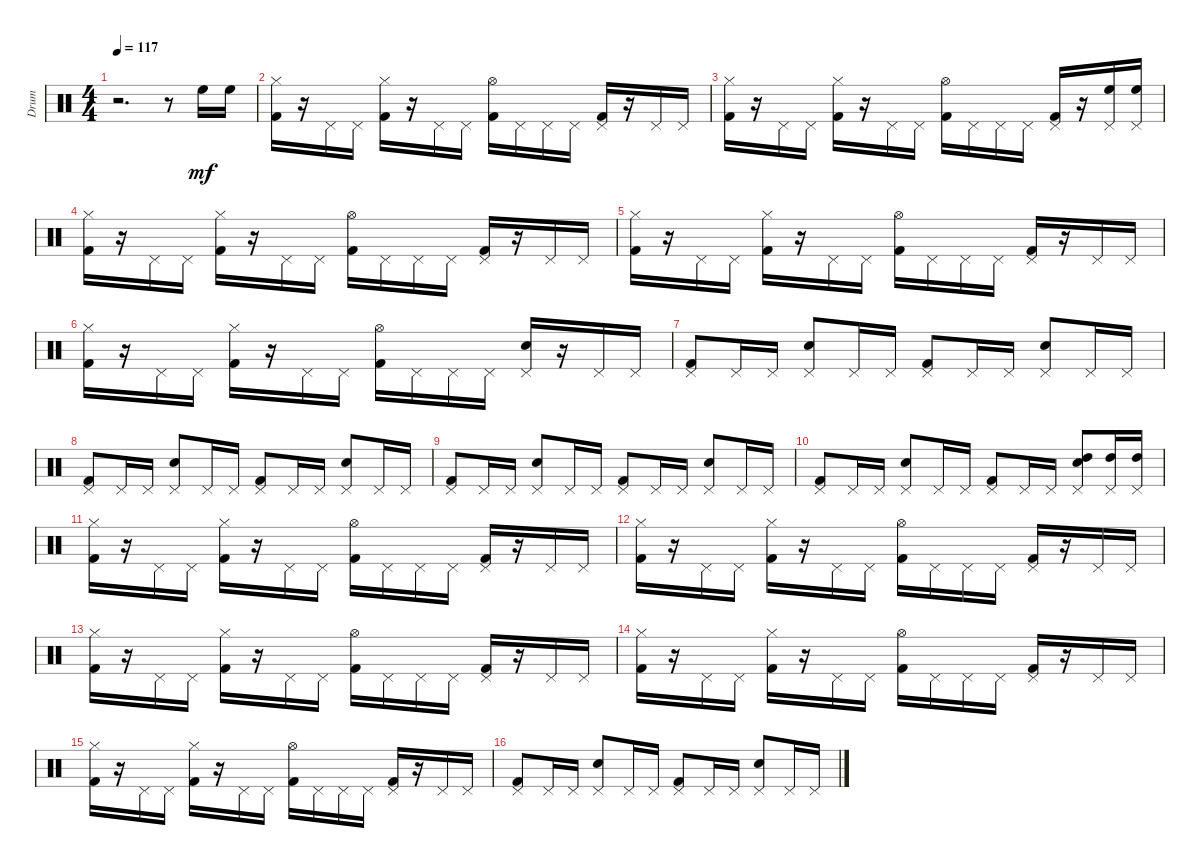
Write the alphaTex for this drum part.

\track ("Drum" "Drum") {instrument percussion}
\staff {score}
\articulation defaults
\ts (4 4)
\tempo 117
\clef neutral
\ks c
r.2{d dy mf} r.8 "High Floor Tom (hit)".16 "High Floor Tom (hit)".16 |
("Hi-Hat (closed)" "Kick (hit) 2").16 r.16 "Pedal Hi-Hat (hit)".16 "Pedal Hi-Hat (hit)".16 ("Hi-Hat (closed)" "Kick (hit) 2").16 r.16 "Pedal Hi-Hat (hit)".16 "Pedal Hi-Hat (hit)".16 ("Hi-Hat (open)" "Kick (hit) 2").16 "Pedal Hi-Hat (hit)".16 "Pedal Hi-Hat (hit)".16 "Pedal Hi-Hat (hit)".16 ("Kick (hit) 2" "Pedal Hi-Hat (hit)").16 r.16 "Pedal Hi-Hat (hit)".16 "Pedal Hi-Hat (hit)".16 |
("Kick (hit) 2" "Hi-Hat (closed)").16 r.16 "Pedal Hi-Hat (hit)".16 "Pedal Hi-Hat (hit)".16 ("Kick (hit) 2" "Hi-Hat (closed)").16 r.16 "Pedal Hi-Hat (hit)".16 "Pedal Hi-Hat (hit)".16 ("Hi-Hat (open)" "Kick (hit) 2").16 "Pedal Hi-Hat (hit)".16 "Pedal Hi-Hat (hit)".16 "Pedal Hi-Hat (hit)".16 ("Kick (hit) 2" "Pedal Hi-Hat (hit)").16 r.16 ("High Floor Tom (hit)" "Pedal Hi-Hat (hit)").16 ("Pedal Hi-Hat (hit)" "High Floor Tom (hit)").16 |
("Hi-Hat (closed)" "Kick (hit) 2").16 r.16 "Pedal Hi-Hat (hit)".16 "Pedal Hi-Hat (hit)".16 ("Kick (hit) 2" "Hi-Hat (closed)").16 r.16 "Pedal Hi-Hat (hit)".16 "Pedal Hi-Hat (hit)".16 ("Kick (hit) 2" "Hi-Hat (open)").16 "Pedal Hi-Hat (hit)".16 "Pedal Hi-Hat (hit)".16 "Pedal Hi-Hat (hit)".16 ("Pedal Hi-Hat (hit)" "Kick (hit) 2").16 r.16 "Pedal Hi-Hat (hit)".16 "Pedal Hi-Hat (hit)".16 |
("Hi-Hat (closed)" "Kick (hit) 2").16 r.16 "Pedal Hi-Hat (hit)".16 "Pedal Hi-Hat (hit)".16 ("Kick (hit) 2" "Hi-Hat (closed)").16 r.16 "Pedal Hi-Hat (hit)".16 "Pedal Hi-Hat (hit)".16 ("Hi-Hat (open)" "Kick (hit) 2").16 "Pedal Hi-Hat (hit)".16 "Pedal Hi-Hat (hit)".16 "Pedal Hi-Hat (hit)".16 ("Pedal Hi-Hat (hit)" "Kick (hit) 2").16 r.16 "Pedal Hi-Hat (hit)".16 "Pedal Hi-Hat (hit)".16 |
("Hi-Hat (closed)" "Kick (hit) 2").16 r.16 "Pedal Hi-Hat (hit)".16 "Pedal Hi-Hat (hit)".16 ("Kick (hit) 2" "Hi-Hat (closed)").16 r.16 "Pedal Hi-Hat (hit)".16 "Pedal Hi-Hat (hit)".16 ("Kick (hit) 2" "Hi-Hat (open)").16 "Pedal Hi-Hat (hit)".16 "Pedal Hi-Hat (hit)".16 "Pedal Hi-Hat (hit)".16 ("Snare (hit) 2" "Pedal Hi-Hat (hit)").16 r.16 "Pedal Hi-Hat (hit)".16 "Pedal Hi-Hat (hit)".16 |
("Pedal Hi-Hat (hit)" "Kick (hit) 2").8 "Pedal Hi-Hat (hit)".16 "Pedal Hi-Hat (hit)".16 ("Snare (hit) 2" "Pedal Hi-Hat (hit)").8 "Pedal Hi-Hat (hit)".16 "Pedal Hi-Hat (hit)".16 ("Pedal Hi-Hat (hit)" "Kick (hit) 2").8 "Pedal Hi-Hat (hit)".16 "Pedal Hi-Hat (hit)".16 ("Pedal Hi-Hat (hit)" "Snare (hit) 2").8 "Pedal Hi-Hat (hit)".16 "Pedal Hi-Hat (hit)".16 |
("Kick (hit) 2" "Pedal Hi-Hat (hit)").8 "Pedal Hi-Hat (hit)".16 "Pedal Hi-Hat (hit)".16 ("Snare (hit) 2" "Pedal Hi-Hat (hit)").8 "Pedal Hi-Hat (hit)".16 "Pedal Hi-Hat (hit)".16 ("Kick (hit) 2" "Pedal Hi-Hat (hit)").8 "Pedal Hi-Hat (hit)".16 "Pedal Hi-Hat (hit)".16 ("Snare (hit) 2" "Pedal Hi-Hat (hit)").8 "Pedal Hi-Hat (hit)".16 "Pedal Hi-Hat (hit)".16 |
("Pedal Hi-Hat (hit)" "Kick (hit) 2").8 "Pedal Hi-Hat (hit)".16 "Pedal Hi-Hat (hit)".16 ("Snare (hit) 2" "Pedal Hi-Hat (hit)").8 "Pedal Hi-Hat (hit)".16 "Pedal Hi-Hat (hit)".16 ("Kick (hit) 2" "Pedal Hi-Hat (hit)").8 "Pedal Hi-Hat (hit)".16 "Pedal Hi-Hat (hit)".16 ("Pedal Hi-Hat (hit)" "Snare (hit) 2").8 "Pedal Hi-Hat (hit)".16 "Pedal Hi-Hat (hit)".16 |
("Pedal Hi-Hat (hit)" "Kick (hit) 2").8 "Pedal Hi-Hat (hit)".16 "Pedal Hi-Hat (hit)".16 ("Pedal Hi-Hat (hit)" "Snare (hit) 2").8 "Pedal Hi-Hat (hit)".16 "Pedal Hi-Hat (hit)".16 ("Kick (hit) 2" "Pedal Hi-Hat (hit)").8 "Pedal Hi-Hat (hit)".16 "Pedal Hi-Hat (hit)".16 ("High Tom (hit)" "Snare (hit) 2" "Pedal Hi-Hat (hit)").8 ("High Tom (hit)" "Pedal Hi-Hat (hit)").16 ("High Tom (hit)" "Pedal Hi-Hat (hit)").16 |
("Hi-Hat (closed)" "Kick (hit) 2").16 r.16 "Pedal Hi-Hat (hit)".16 "Pedal Hi-Hat (hit)".16 ("Hi-Hat (closed)" "Kick (hit) 2").16 r.16 "Pedal Hi-Hat (hit)".16 "Pedal Hi-Hat (hit)".16 ("Hi-Hat (open)" "Kick (hit) 2").16 "Pedal Hi-Hat (hit)".16 "Pedal Hi-Hat (hit)".16 "Pedal Hi-Hat (hit)".16 ("Kick (hit) 2" "Pedal Hi-Hat (hit)").16 r.16 "Pedal Hi-Hat (hit)".16 "Pedal Hi-Hat (hit)".16 |
("Hi-Hat (closed)" "Kick (hit) 2").16 r.16 "Pedal Hi-Hat (hit)".16 "Pedal Hi-Hat (hit)".16 ("Kick (hit) 2" "Hi-Hat (closed)").16 r.16 "Pedal Hi-Hat (hit)".16 "Pedal Hi-Hat (hit)".16 ("Kick (hit) 2" "Hi-Hat (open)").16 "Pedal Hi-Hat (hit)".16 "Pedal Hi-Hat (hit)".16 "Pedal Hi-Hat (hit)".16 ("Kick (hit) 2" "Pedal Hi-Hat (hit)").16 r.16 "Pedal Hi-Hat (hit)".16 "Pedal Hi-Hat (hit)".16 |
("Hi-Hat (closed)" "Kick (hit) 2").16 r.16 "Pedal Hi-Hat (hit)".16 "Pedal Hi-Hat (hit)".16 ("Kick (hit) 2" "Hi-Hat (closed)").16 r.16 "Pedal Hi-Hat (hit)".16 "Pedal Hi-Hat (hit)".16 ("Hi-Hat (open)" "Kick (hit) 2").16 "Pedal Hi-Hat (hit)".16 "Pedal Hi-Hat (hit)".16 "Pedal Hi-Hat (hit)".16 ("Kick (hit) 2" "Pedal Hi-Hat (hit)").16 r.16 "Pedal Hi-Hat (hit)".16 "Pedal Hi-Hat (hit)".16 |
("Hi-Hat (closed)" "Kick (hit) 2").16 r.16 "Pedal Hi-Hat (hit)".16 "Pedal Hi-Hat (hit)".16 ("Kick (hit) 2" "Hi-Hat (closed)").16 r.16 "Pedal Hi-Hat (hit)".16 "Pedal Hi-Hat (hit)".16 ("Kick (hit) 2" "Hi-Hat (open)").16 "Pedal Hi-Hat (hit)".16 "Pedal Hi-Hat (hit)".16 "Pedal Hi-Hat (hit)".16 ("Pedal Hi-Hat (hit)" "Kick (hit) 2").16 r.16 "Pedal Hi-Hat (hit)".16 "Pedal Hi-Hat (hit)".16 |
("Hi-Hat (closed)" "Kick (hit) 2").16 r.16 "Pedal Hi-Hat (hit)".16 "Pedal Hi-Hat (hit)".16 ("Hi-Hat (closed)" "Kick (hit) 2").16 r.16 "Pedal Hi-Hat (hit)".16 "Pedal Hi-Hat (hit)".16 ("Kick (hit) 2" "Hi-Hat (open)").16 "Pedal Hi-Hat (hit)".16 "Pedal Hi-Hat (hit)".16 "Pedal Hi-Hat (hit)".16 ("Kick (hit) 2" "Pedal Hi-Hat (hit)").16 r.16 "Pedal Hi-Hat (hit)".16 "Pedal Hi-Hat (hit)".16 |
("Pedal Hi-Hat (hit)" "Kick (hit) 2").8 "Pedal Hi-Hat (hit)".16 "Pedal Hi-Hat (hit)".16 ("Snare (hit) 2" "Pedal Hi-Hat (hit)").8 "Pedal Hi-Hat (hit)".16 "Pedal Hi-Hat (hit)".16 ("Kick (hit) 2" "Pedal Hi-Hat (hit)").8 "Pedal Hi-Hat (hit)".16 "Pedal Hi-Hat (hit)".16 ("Pedal Hi-Hat (hit)" "Snare (hit) 2").8 "Pedal Hi-Hat (hit)".16 "Pedal Hi-Hat (hit)".16
